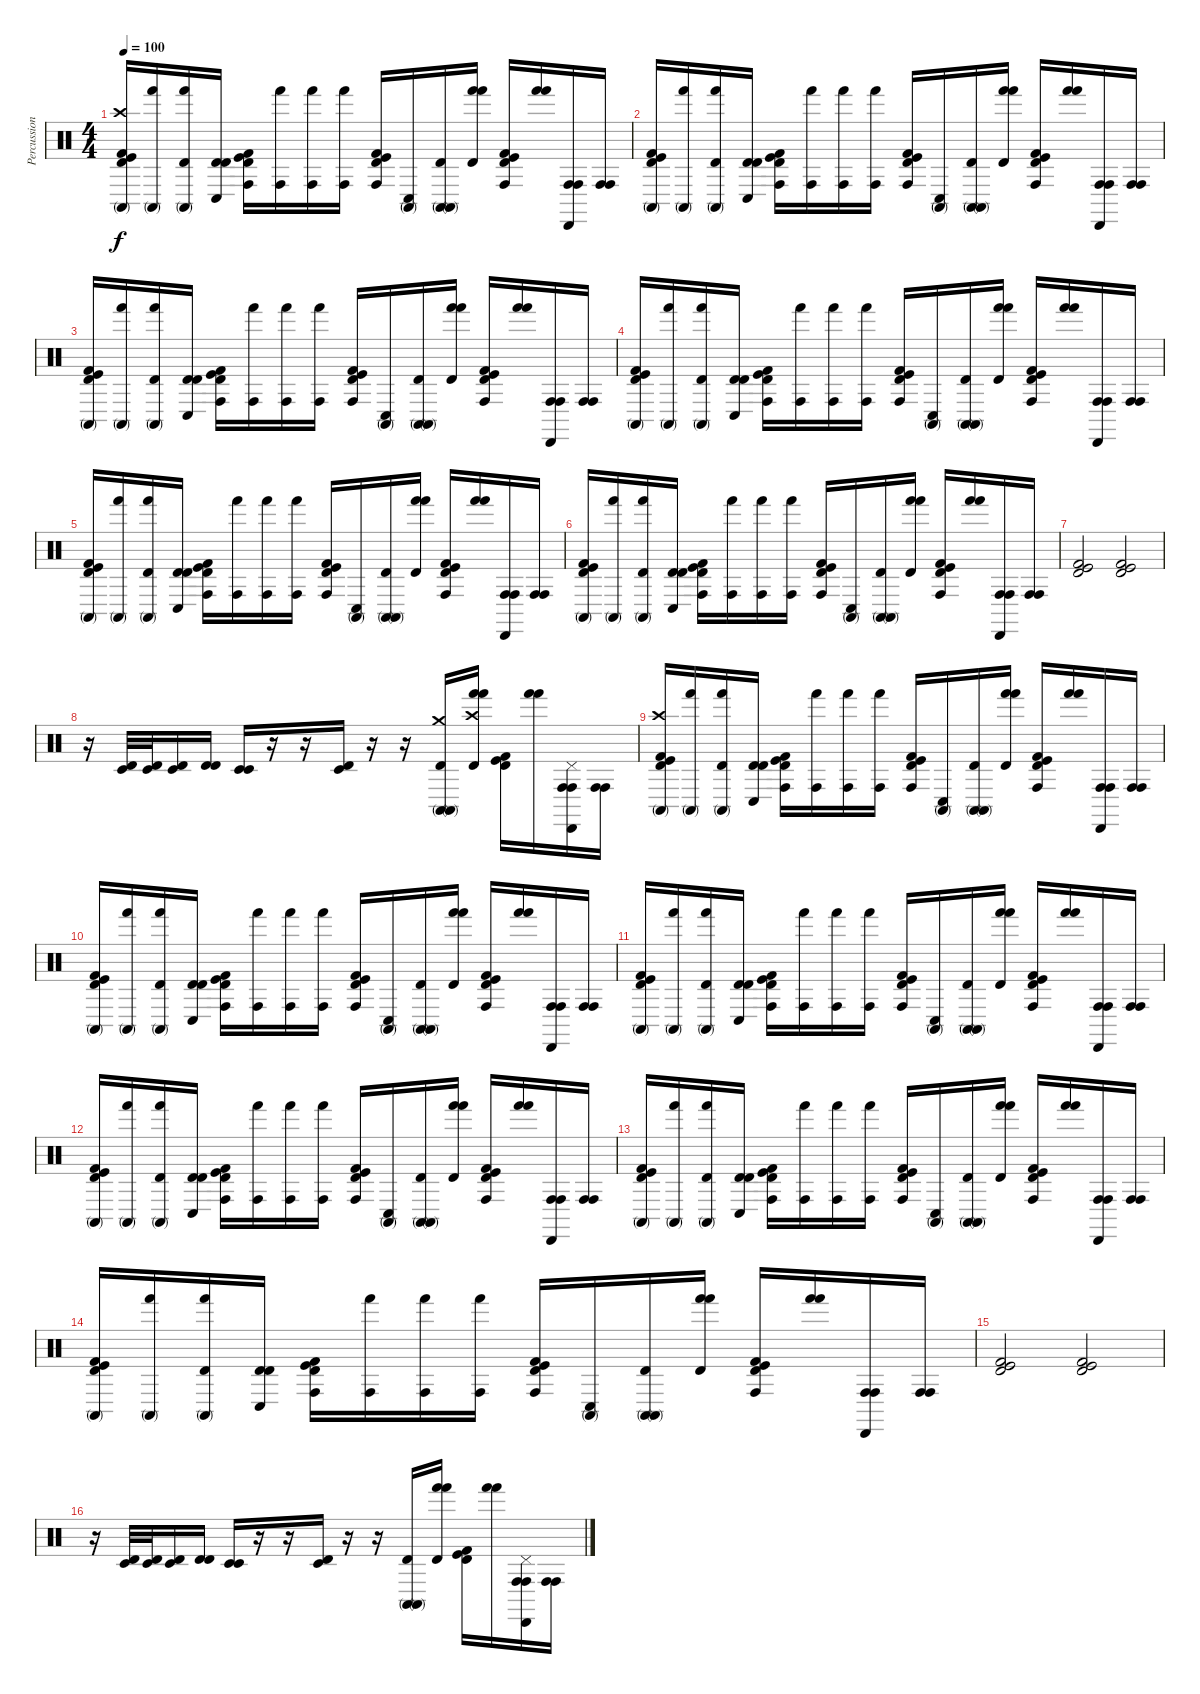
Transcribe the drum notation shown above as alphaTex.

\track ("Percussion" "Percussion") {instrument percussion}
\staff {score}
\articulation defaults
\ts (4 4)
\tempo 100
\clef neutral
\ks c
("Conga high (mute)" "Timbale high (hit)" "Crash high (hit)" "Kick (hit) 2" "Kick (hit)").16{dy f} ("Conga high (mute)" "Hand (hit)").16 ("Conga high (mute)" "Hand (hit)" "Timbale high (hit)").16 ("Conga low (hit)" "Timbale high (hit)" "Timbale high (hit)").16 ("Conga high (hit)" "Timbale high (hit)" "Kick (hit) 2" "Kick (hit)").16 ("Conga high (hit)" "Hand (hit)").16 ("Conga high (hit)" "Hand (hit)").16 ("Conga high (hit)" "Hand (hit)").16 ("Conga high (hit)" "Timbale high (hit)" "Kick (hit) 2" "Kick (hit)").16 ("Conga high (mute)" "Conga low (hit)").16 ("Conga high (mute)" "Conga high (mute)" "Timbale high (hit)").16 ("Hand (hit)" "Hand (hit)" "Timbale high (hit)").16 ("Conga high (hit)" "Timbale high (hit)" "Kick (hit) 2" "Kick (hit)").16 ("Hand (hit)" "Hand (hit)").16 ("Conga high (hit)" "Conga high (hit)" "Cabasa (hit)").16 ("Conga high (hit)" "Conga high (hit)").16 |
("Conga high (mute)" "Timbale high (hit)" "Kick (hit) 2" "Kick (hit)").16 ("Conga high (mute)" "Hand (hit)").16 ("Conga high (mute)" "Hand (hit)" "Timbale high (hit)").16 ("Conga low (hit)" "Timbale high (hit)" "Timbale high (hit)").16 ("Conga high (hit)" "Timbale high (hit)" "Kick (hit) 2" "Kick (hit)").16 ("Conga high (hit)" "Hand (hit)").16 ("Conga high (hit)" "Hand (hit)").16 ("Conga high (hit)" "Hand (hit)").16 ("Conga high (hit)" "Timbale high (hit)" "Kick (hit) 2" "Kick (hit)").16 ("Conga high (mute)" "Conga low (hit)").16 ("Conga high (mute)" "Conga high (mute)" "Timbale high (hit)").16 ("Hand (hit)" "Hand (hit)" "Timbale high (hit)").16 ("Conga high (hit)" "Timbale high (hit)" "Kick (hit) 2" "Kick (hit)").16 ("Hand (hit)" "Hand (hit)").16 ("Conga high (hit)" "Conga high (hit)" "Cabasa (hit)").16 ("Conga high (hit)" "Conga high (hit)").16 |
("Conga high (mute)" "Timbale high (hit)" "Kick (hit) 2" "Kick (hit)").16 ("Conga high (mute)" "Hand (hit)").16 ("Conga high (mute)" "Hand (hit)" "Timbale high (hit)").16 ("Conga low (hit)" "Timbale high (hit)" "Timbale high (hit)").16 ("Conga high (hit)" "Timbale high (hit)" "Kick (hit) 2" "Kick (hit)").16 ("Conga high (hit)" "Hand (hit)").16 ("Conga high (hit)" "Hand (hit)").16 ("Conga high (hit)" "Hand (hit)").16 ("Conga high (hit)" "Timbale high (hit)" "Kick (hit) 2" "Kick (hit)").16 ("Conga high (mute)" "Conga low (hit)").16 ("Conga high (mute)" "Conga high (mute)" "Timbale high (hit)").16 ("Hand (hit)" "Hand (hit)" "Timbale high (hit)").16 ("Conga high (hit)" "Timbale high (hit)" "Kick (hit) 2" "Kick (hit)").16 ("Hand (hit)" "Hand (hit)").16 ("Conga high (hit)" "Conga high (hit)" "Cabasa (hit)").16 ("Conga high (hit)" "Conga high (hit)").16 |
("Conga high (mute)" "Timbale high (hit)" "Kick (hit) 2" "Kick (hit)").16 ("Conga high (mute)" "Hand (hit)").16 ("Conga high (mute)" "Hand (hit)" "Timbale high (hit)").16 ("Conga low (hit)" "Timbale high (hit)" "Timbale high (hit)").16 ("Conga high (hit)" "Timbale high (hit)" "Kick (hit) 2" "Kick (hit)").16 ("Conga high (hit)" "Hand (hit)").16 ("Conga high (hit)" "Hand (hit)").16 ("Conga high (hit)" "Hand (hit)").16 ("Conga high (hit)" "Timbale high (hit)" "Kick (hit) 2" "Kick (hit)").16 ("Conga high (mute)" "Conga low (hit)").16 ("Conga high (mute)" "Conga high (mute)" "Timbale high (hit)").16 ("Hand (hit)" "Hand (hit)" "Timbale high (hit)").16 ("Conga high (hit)" "Timbale high (hit)" "Kick (hit) 2" "Kick (hit)").16 ("Hand (hit)" "Hand (hit)").16 ("Conga high (hit)" "Conga high (hit)" "Cabasa (hit)").16 ("Conga high (hit)" "Conga high (hit)").16 |
("Conga high (mute)" "Timbale high (hit)" "Kick (hit) 2" "Kick (hit)").16 ("Conga high (mute)" "Hand (hit)").16 ("Conga high (mute)" "Hand (hit)" "Timbale high (hit)").16 ("Conga low (hit)" "Timbale high (hit)" "Timbale high (hit)").16 ("Conga high (hit)" "Timbale high (hit)" "Kick (hit) 2" "Kick (hit)").16 ("Conga high (hit)" "Hand (hit)").16 ("Conga high (hit)" "Hand (hit)").16 ("Conga high (hit)" "Hand (hit)").16 ("Conga high (hit)" "Timbale high (hit)" "Kick (hit) 2" "Kick (hit)").16 ("Conga high (mute)" "Conga low (hit)").16 ("Conga high (mute)" "Conga high (mute)" "Timbale high (hit)").16 ("Hand (hit)" "Hand (hit)" "Timbale high (hit)").16 ("Conga high (hit)" "Timbale high (hit)" "Kick (hit) 2" "Kick (hit)").16 ("Hand (hit)" "Hand (hit)").16 ("Conga high (hit)" "Conga high (hit)" "Cabasa (hit)").16 ("Conga high (hit)" "Conga high (hit)").16 |
("Conga high (mute)" "Timbale high (hit)" "Kick (hit) 2" "Kick (hit)").16 ("Conga high (mute)" "Hand (hit)").16 ("Conga high (mute)" "Hand (hit)" "Timbale high (hit)").16 ("Conga low (hit)" "Timbale high (hit)" "Timbale high (hit)").16 ("Conga high (hit)" "Timbale high (hit)" "Kick (hit) 2" "Kick (hit)").16 ("Conga high (hit)" "Hand (hit)").16 ("Conga high (hit)" "Hand (hit)").16 ("Conga high (hit)" "Hand (hit)").16 ("Conga high (hit)" "Timbale high (hit)" "Kick (hit) 2" "Kick (hit)").16 ("Conga high (mute)" "Conga low (hit)").16 ("Conga high (mute)" "Conga high (mute)" "Timbale high (hit)").16 ("Hand (hit)" "Hand (hit)" "Timbale high (hit)").16 ("Conga high (hit)" "Timbale high (hit)" "Kick (hit) 2" "Kick (hit)").16 ("Hand (hit)" "Hand (hit)").16 ("Conga high (hit)" "Conga high (hit)" "Cabasa (hit)").16 ("Conga high (hit)" "Conga high (hit)").16 |
("Timbale high (hit)" "Kick (hit) 2" "Kick (hit)").2 ("Timbale high (hit)" "Kick (hit) 2" "Kick (hit)").2 |
r.16 ("Timbale high (hit)" "Timbale low (hit)").32 ("Timbale high (hit)" "Timbale low (hit)").32 ("Timbale high (hit)" "Timbale low (hit)").16 ("Timbale high (hit)" "Timbale high (hit)").16 ("Timbale low (hit)" "Timbale low (hit)").16 r.16 r.16 ("Timbale high (hit)" "Timbale low (hit)").16 r.16 r.16 ("Conga high (mute)" "Conga high (mute)" "Timbale high (hit)" "Crash medium (hit)").16 ("Hand (hit)" "Hand (hit)" "Timbale high (hit)" "Crash high (hit)").16 ("Timbale high (hit)" "Kick (hit) 2" "Kick (hit)").16 ("Hand (hit)" "Hand (hit)").16 ("Conga high (hit)" "Conga high (hit)" "Cabasa (hit)" "Pedal Hi-Hat (hit)").16 ("Conga high (hit)" "Conga high (hit)").16 |
("Conga high (mute)" "Timbale high (hit)" "Crash high (hit)" "Kick (hit) 2" "Kick (hit)").16 ("Conga high (mute)" "Hand (hit)").16 ("Conga high (mute)" "Hand (hit)" "Timbale high (hit)").16 ("Conga low (hit)" "Timbale high (hit)" "Timbale high (hit)").16 ("Conga high (hit)" "Timbale high (hit)" "Kick (hit) 2" "Kick (hit)").16 ("Conga high (hit)" "Hand (hit)").16 ("Conga high (hit)" "Hand (hit)").16 ("Conga high (hit)" "Hand (hit)").16 ("Conga high (hit)" "Timbale high (hit)" "Kick (hit) 2" "Kick (hit)").16 ("Conga high (mute)" "Conga low (hit)").16 ("Conga high (mute)" "Conga high (mute)" "Timbale high (hit)").16 ("Hand (hit)" "Hand (hit)" "Timbale high (hit)").16 ("Conga high (hit)" "Timbale high (hit)" "Kick (hit) 2" "Kick (hit)").16 ("Hand (hit)" "Hand (hit)").16 ("Conga high (hit)" "Conga high (hit)" "Cabasa (hit)").16 ("Conga high (hit)" "Conga high (hit)").16 |
("Conga high (mute)" "Timbale high (hit)" "Kick (hit) 2" "Kick (hit)").16 ("Conga high (mute)" "Hand (hit)").16 ("Conga high (mute)" "Hand (hit)" "Timbale high (hit)").16 ("Conga low (hit)" "Timbale high (hit)" "Timbale high (hit)").16 ("Conga high (hit)" "Timbale high (hit)" "Kick (hit) 2" "Kick (hit)").16 ("Conga high (hit)" "Hand (hit)").16 ("Conga high (hit)" "Hand (hit)").16 ("Conga high (hit)" "Hand (hit)").16 ("Conga high (hit)" "Timbale high (hit)" "Kick (hit) 2" "Kick (hit)").16 ("Conga high (mute)" "Conga low (hit)").16 ("Conga high (mute)" "Conga high (mute)" "Timbale high (hit)").16 ("Hand (hit)" "Hand (hit)" "Timbale high (hit)").16 ("Conga high (hit)" "Timbale high (hit)" "Kick (hit) 2" "Kick (hit)").16 ("Hand (hit)" "Hand (hit)").16 ("Conga high (hit)" "Conga high (hit)" "Cabasa (hit)").16 ("Conga high (hit)" "Conga high (hit)").16 |
("Conga high (mute)" "Timbale high (hit)" "Kick (hit) 2" "Kick (hit)").16 ("Conga high (mute)" "Hand (hit)").16 ("Conga high (mute)" "Hand (hit)" "Timbale high (hit)").16 ("Conga low (hit)" "Timbale high (hit)" "Timbale high (hit)").16 ("Conga high (hit)" "Timbale high (hit)" "Kick (hit) 2" "Kick (hit)").16 ("Conga high (hit)" "Hand (hit)").16 ("Conga high (hit)" "Hand (hit)").16 ("Conga high (hit)" "Hand (hit)").16 ("Conga high (hit)" "Timbale high (hit)" "Kick (hit) 2" "Kick (hit)").16 ("Conga high (mute)" "Conga low (hit)").16 ("Conga high (mute)" "Conga high (mute)" "Timbale high (hit)").16 ("Hand (hit)" "Hand (hit)" "Timbale high (hit)").16 ("Conga high (hit)" "Timbale high (hit)" "Kick (hit) 2" "Kick (hit)").16 ("Hand (hit)" "Hand (hit)").16 ("Conga high (hit)" "Conga high (hit)" "Cabasa (hit)").16 ("Conga high (hit)" "Conga high (hit)").16 |
("Conga high (mute)" "Timbale high (hit)" "Kick (hit) 2" "Kick (hit)").16 ("Conga high (mute)" "Hand (hit)").16 ("Conga high (mute)" "Hand (hit)" "Timbale high (hit)").16 ("Conga low (hit)" "Timbale high (hit)" "Timbale high (hit)").16 ("Conga high (hit)" "Timbale high (hit)" "Kick (hit) 2" "Kick (hit)").16 ("Conga high (hit)" "Hand (hit)").16 ("Conga high (hit)" "Hand (hit)").16 ("Conga high (hit)" "Hand (hit)").16 ("Conga high (hit)" "Timbale high (hit)" "Kick (hit) 2" "Kick (hit)").16 ("Conga high (mute)" "Conga low (hit)").16 ("Conga high (mute)" "Conga high (mute)" "Timbale high (hit)").16 ("Hand (hit)" "Hand (hit)" "Timbale high (hit)").16 ("Conga high (hit)" "Timbale high (hit)" "Kick (hit) 2" "Kick (hit)").16 ("Hand (hit)" "Hand (hit)").16 ("Conga high (hit)" "Conga high (hit)" "Cabasa (hit)").16 ("Conga high (hit)" "Conga high (hit)").16 |
("Conga high (mute)" "Timbale high (hit)" "Kick (hit) 2" "Kick (hit)").16 ("Conga high (mute)" "Hand (hit)").16 ("Conga high (mute)" "Hand (hit)" "Timbale high (hit)").16 ("Conga low (hit)" "Timbale high (hit)" "Timbale high (hit)").16 ("Conga high (hit)" "Timbale high (hit)" "Kick (hit) 2" "Kick (hit)").16 ("Conga high (hit)" "Hand (hit)").16 ("Conga high (hit)" "Hand (hit)").16 ("Conga high (hit)" "Hand (hit)").16 ("Conga high (hit)" "Timbale high (hit)" "Kick (hit) 2" "Kick (hit)").16 ("Conga high (mute)" "Conga low (hit)").16 ("Conga high (mute)" "Conga high (mute)" "Timbale high (hit)").16 ("Hand (hit)" "Hand (hit)" "Timbale high (hit)").16 ("Conga high (hit)" "Timbale high (hit)" "Kick (hit) 2" "Kick (hit)").16 ("Hand (hit)" "Hand (hit)").16 ("Conga high (hit)" "Conga high (hit)" "Cabasa (hit)").16 ("Conga high (hit)" "Conga high (hit)").16 |
("Conga high (mute)" "Timbale high (hit)" "Kick (hit) 2" "Kick (hit)").16 ("Conga high (mute)" "Hand (hit)").16 ("Conga high (mute)" "Hand (hit)" "Timbale high (hit)").16 ("Conga low (hit)" "Timbale high (hit)" "Timbale high (hit)").16 ("Conga high (hit)" "Timbale high (hit)" "Kick (hit) 2" "Kick (hit)").16 ("Conga high (hit)" "Hand (hit)").16 ("Conga high (hit)" "Hand (hit)").16 ("Conga high (hit)" "Hand (hit)").16 ("Conga high (hit)" "Timbale high (hit)" "Kick (hit) 2" "Kick (hit)").16 ("Conga high (mute)" "Conga low (hit)").16 ("Conga high (mute)" "Conga high (mute)" "Timbale high (hit)").16 ("Hand (hit)" "Hand (hit)" "Timbale high (hit)").16 ("Conga high (hit)" "Timbale high (hit)" "Kick (hit) 2" "Kick (hit)").16 ("Hand (hit)" "Hand (hit)").16 ("Conga high (hit)" "Conga high (hit)" "Cabasa (hit)").16 ("Conga high (hit)" "Conga high (hit)").16 |
("Timbale high (hit)" "Kick (hit) 2" "Kick (hit)").2 ("Timbale high (hit)" "Kick (hit) 2" "Kick (hit)").2 |
r.16 ("Timbale high (hit)" "Timbale low (hit)").32 ("Timbale high (hit)" "Timbale low (hit)").32 ("Timbale high (hit)" "Timbale low (hit)").16 ("Timbale high (hit)" "Timbale high (hit)").16 ("Timbale low (hit)" "Timbale low (hit)").16 r.16 r.16 ("Timbale high (hit)" "Timbale low (hit)").16 r.16 r.16 ("Conga high (mute)" "Conga high (mute)" "Timbale high (hit)").16 ("Hand (hit)" "Hand (hit)" "Timbale high (hit)").16 ("Timbale high (hit)" "Kick (hit) 2" "Kick (hit)").16 ("Hand (hit)" "Hand (hit)").16 ("Conga high (hit)" "Conga high (hit)" "Cabasa (hit)" "Pedal Hi-Hat (hit)").16 ("Conga high (hit)" "Conga high (hit)").16
